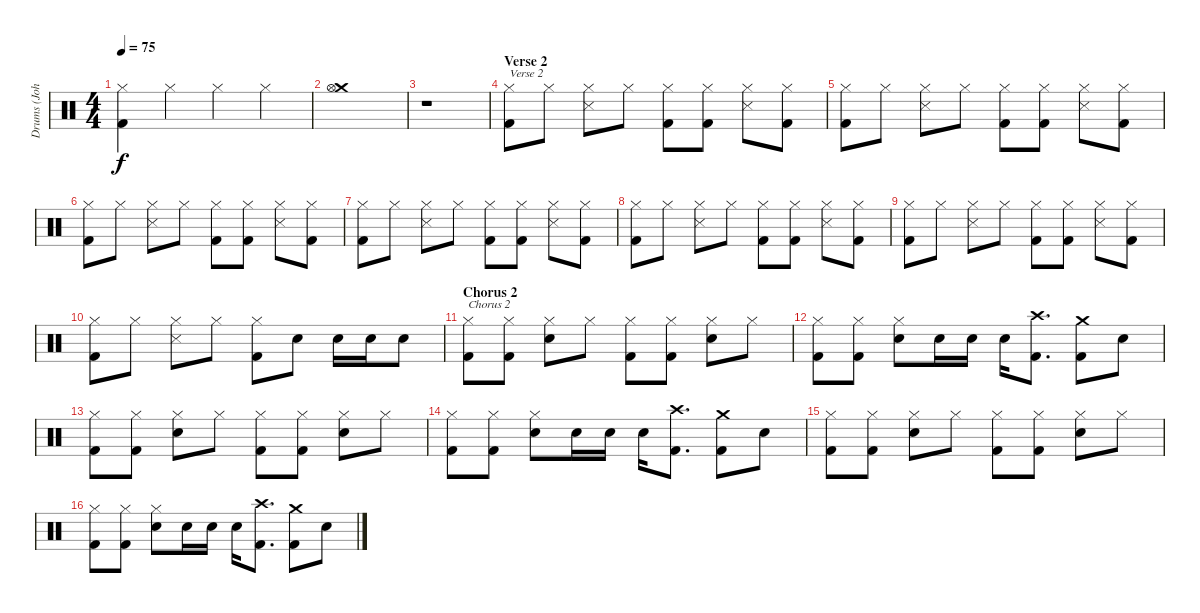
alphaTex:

\track ("Drums (John Bonham" "Drums (Joh") {instrument percussion}
\staff {score}
\articulation defaults
\ts (4 4)
\tempo 75
\clef neutral
\ks c
("Hi-Hat (closed)" "Kick (hit) 2").4{dy f} "Hi-Hat (closed)".4 "Hi-Hat (closed)".4 "Hi-Hat (closed)".4 |
("Crash medium (hit)" "Hi-Hat (open)").1 |
r.1 |
\section ("" "Verse 2")
("Hi-Hat (closed)" "Kick (hit) 2").8{txt "Verse 2"} "Hi-Hat (closed)".8 ("Hi-Hat (closed)" "Snare (side stick) 3").8 "Hi-Hat (closed)".8 ("Hi-Hat (closed)" "Kick (hit) 2").8 ("Hi-Hat (closed)" "Kick (hit) 2").8 ("Hi-Hat (closed)" "Snare (side stick) 3").8 ("Hi-Hat (closed)" "Kick (hit) 2").8 |
("Hi-Hat (closed)" "Kick (hit) 2").8 "Hi-Hat (closed)".8 ("Hi-Hat (closed)" "Snare (side stick) 3").8 "Hi-Hat (closed)".8 ("Hi-Hat (closed)" "Kick (hit) 2").8 ("Hi-Hat (closed)" "Kick (hit) 2").8 ("Hi-Hat (closed)" "Snare (side stick) 3").8 ("Hi-Hat (closed)" "Kick (hit) 2").8 |
("Hi-Hat (closed)" "Kick (hit) 2").8 "Hi-Hat (closed)".8 ("Hi-Hat (closed)" "Snare (side stick) 3").8 "Hi-Hat (closed)".8 ("Hi-Hat (closed)" "Kick (hit) 2").8 ("Hi-Hat (closed)" "Kick (hit) 2").8 ("Hi-Hat (closed)" "Snare (side stick) 3").8 ("Hi-Hat (closed)" "Kick (hit) 2").8 |
("Hi-Hat (closed)" "Kick (hit) 2").8 "Hi-Hat (closed)".8 ("Hi-Hat (closed)" "Snare (side stick) 3").8 "Hi-Hat (closed)".8 ("Hi-Hat (closed)" "Kick (hit) 2").8 ("Hi-Hat (closed)" "Kick (hit) 2").8 ("Hi-Hat (closed)" "Snare (side stick) 3").8 ("Hi-Hat (closed)" "Kick (hit) 2").8 |
("Hi-Hat (closed)" "Kick (hit) 2").8 "Hi-Hat (closed)".8 ("Hi-Hat (closed)" "Snare (side stick) 3").8 "Hi-Hat (closed)".8 ("Hi-Hat (closed)" "Kick (hit) 2").8 ("Hi-Hat (closed)" "Kick (hit) 2").8 ("Hi-Hat (closed)" "Snare (side stick) 3").8 ("Hi-Hat (closed)" "Kick (hit) 2").8 |
("Hi-Hat (closed)" "Kick (hit) 2").8 "Hi-Hat (closed)".8 ("Hi-Hat (closed)" "Snare (side stick) 3").8 "Hi-Hat (closed)".8 ("Hi-Hat (closed)" "Kick (hit) 2").8 ("Hi-Hat (closed)" "Kick (hit) 2").8 ("Hi-Hat (closed)" "Snare (side stick) 3").8 ("Hi-Hat (closed)" "Kick (hit) 2").8 |
("Hi-Hat (closed)" "Kick (hit) 2").8 "Hi-Hat (closed)".8 ("Hi-Hat (closed)" "Snare (side stick) 3").8 "Hi-Hat (closed)".8 ("Hi-Hat (closed)" "Kick (hit) 2").8 "Snare (hit) 2".8 "Snare (hit) 2".16 "Snare (hit) 2".16 "Snare (hit) 2".8 |
\section ("" "Chorus 2")
("Hi-Hat (closed)" "Kick (hit) 2").8{txt "Chorus 2"} ("Hi-Hat (closed)" "Kick (hit) 2").8 ("Hi-Hat (closed)" "Snare (hit) 2").8 "Hi-Hat (closed)".8 ("Hi-Hat (closed)" "Kick (hit) 2").8 ("Hi-Hat (closed)" "Kick (hit) 2").8 ("Hi-Hat (closed)" "Snare (hit) 2").8 "Hi-Hat (closed)".8 |
("Hi-Hat (closed)" "Kick (hit) 2").8 ("Hi-Hat (closed)" "Kick (hit) 2").8 ("Hi-Hat (closed)" "Snare (hit) 2").8 "Snare (hit) 2".16 "Snare (hit) 2".16 "Snare (hit) 2".16 ("Crash high (hit)" "Kick (hit) 2").8{d} ("Crash medium (hit)" "Kick (hit) 2").8 "Snare (hit) 2".8 |
("Hi-Hat (closed)" "Kick (hit) 2").8 ("Hi-Hat (closed)" "Kick (hit) 2").8 ("Hi-Hat (closed)" "Snare (hit) 2").8 "Hi-Hat (closed)".8 ("Hi-Hat (closed)" "Kick (hit) 2").8 ("Hi-Hat (closed)" "Kick (hit) 2").8 ("Hi-Hat (closed)" "Snare (hit) 2").8 "Hi-Hat (closed)".8 |
("Hi-Hat (closed)" "Kick (hit) 2").8 ("Hi-Hat (closed)" "Kick (hit) 2").8 ("Hi-Hat (closed)" "Snare (hit) 2").8 "Snare (hit) 2".16 "Snare (hit) 2".16 "Snare (hit) 2".16 ("Crash high (hit)" "Kick (hit) 2").8{d} ("Crash medium (hit)" "Kick (hit) 2").8 "Snare (hit) 2".8 |
("Hi-Hat (closed)" "Kick (hit) 2").8 ("Hi-Hat (closed)" "Kick (hit) 2").8 ("Hi-Hat (closed)" "Snare (hit) 2").8 "Hi-Hat (closed)".8 ("Hi-Hat (closed)" "Kick (hit) 2").8 ("Hi-Hat (closed)" "Kick (hit) 2").8 ("Hi-Hat (closed)" "Snare (hit) 2").8 "Hi-Hat (closed)".8 |
("Hi-Hat (closed)" "Kick (hit) 2").8 ("Hi-Hat (closed)" "Kick (hit) 2").8 ("Hi-Hat (closed)" "Snare (hit) 2").8 "Snare (hit) 2".16 "Snare (hit) 2".16 "Snare (hit) 2".16 ("Crash high (hit)" "Kick (hit) 2").8{d} ("Crash medium (hit)" "Kick (hit) 2").8 "Snare (hit) 2".8
